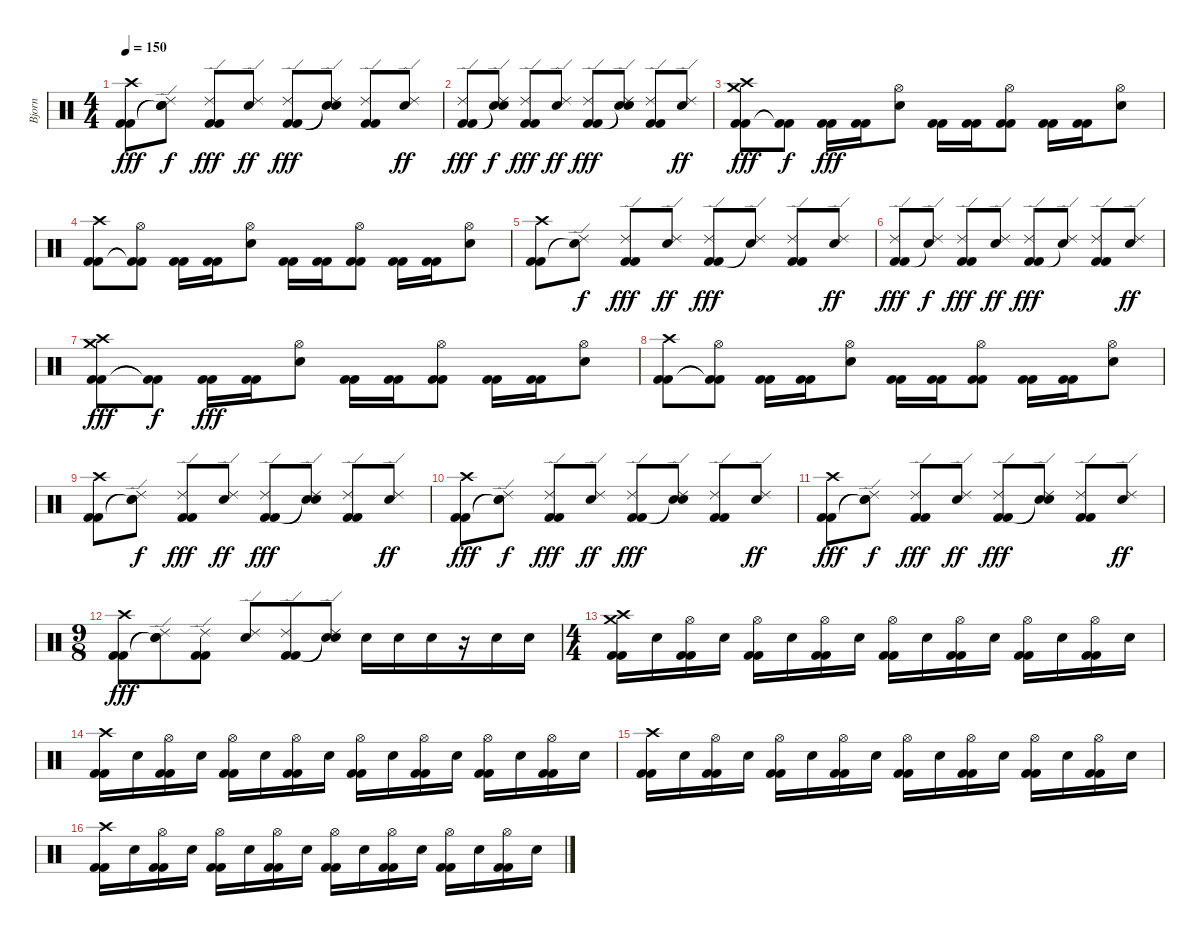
\track ("Bjorn" "Bjorn") {instrument percussion}
\staff {score}
\articulation defaults
\ts (4 4)
\tempo 150
\clef neutral
\ks c
("Kick (hit) 2" "Kick (hit) 2" "Crash high (hit)").8{dy fff} ("Snare (hit)"{t} "Snare (hit)"{t} "Ride (edge) 2").8{dy f} ("Kick (hit) 2" "Kick (hit) 2" "Ride (edge) 2").8{dy fff} ("Snare (hit) 2" "Ride (edge) 2").8{dy ff} ("Kick (hit) 2" "Kick (hit) 2" "Ride (edge) 2").8{dy fff} ("Snare (hit)"{t} "Snare (hit)"{t} "Ride (edge) 2").8 ("Kick (hit) 2" "Kick (hit) 2" "Ride (edge) 2").8 ("Snare (hit) 2" "Ride (edge) 2").8{dy ff} |
("Kick (hit) 2" "Kick (hit) 2" "Ride (edge) 2").8{dy fff} ("Snare (hit)"{t} "Snare (hit)"{t} "Ride (edge) 2").8{dy f} ("Kick (hit) 2" "Kick (hit) 2" "Ride (edge) 2").8{dy fff} ("Snare (hit) 2" "Ride (edge) 2").8{dy ff} ("Kick (hit) 2" "Kick (hit) 2" "Ride (edge) 2").8{dy fff} ("Snare (hit)"{t} "Snare (hit)"{t} "Ride (edge) 2").8 ("Kick (hit) 2" "Kick (hit) 2" "Ride (edge) 2").8 ("Snare (hit) 2" "Ride (edge) 2").8{dy ff} |
("Kick (hit) 2" "Kick (hit) 2" "Crash high (hit)" "Crash medium (hit)").8{dy fff} ("Kick (hit) 2"{t} "Kick (hit) 2"{t}).8{dy f} ("Kick (hit) 2" "Kick (hit) 2").16{dy fff} ("Kick (hit) 2" "Kick (hit) 2").16 ("Snare (hit) 2" "Hi-Hat (open)").8 ("Kick (hit) 2" "Kick (hit) 2").16 ("Kick (hit) 2" "Kick (hit) 2").16 ("Kick (hit) 2" "Kick (hit) 2" "Hi-Hat (open)").8 ("Kick (hit) 2" "Kick (hit) 2").16 ("Kick (hit) 2" "Kick (hit) 2").16 ("Snare (hit) 2" "Hi-Hat (open)").8 |
("Kick (hit) 2" "Kick (hit) 2" "Crash high (hit)").8 ("Kick (hit) 2"{t} "Kick (hit) 2"{t} "Hi-Hat (open)").8 ("Kick (hit) 2" "Kick (hit) 2").16 ("Kick (hit) 2" "Kick (hit) 2").16 ("Snare (hit) 2" "Hi-Hat (open)").8 ("Kick (hit) 2" "Kick (hit) 2").16 ("Kick (hit) 2" "Kick (hit) 2").16 ("Kick (hit) 2" "Kick (hit) 2" "Hi-Hat (open)").8 ("Kick (hit) 2" "Kick (hit) 2").16 ("Kick (hit) 2" "Kick (hit) 2").16 ("Snare (hit) 2" "Hi-Hat (open)").8 |
("Kick (hit) 2" "Kick (hit) 2" "Crash high (hit)").8 ("Snare (hit)"{t} "Ride (edge) 2").8{dy f} ("Kick (hit) 2" "Kick (hit) 2" "Ride (edge) 2").8{dy fff} ("Snare (hit) 2" "Ride (edge) 2").8{dy ff} ("Kick (hit) 2" "Kick (hit) 2" "Ride (edge) 2").8{dy fff} ("Snare (hit)"{t} "Ride (edge) 2").8 ("Kick (hit) 2" "Kick (hit) 2" "Ride (edge) 2").8 ("Snare (hit) 2" "Ride (edge) 2").8{dy ff} |
("Kick (hit) 2" "Kick (hit) 2" "Ride (edge) 2").8{dy fff} ("Snare (hit)"{t} "Ride (edge) 2").8{dy f} ("Kick (hit) 2" "Kick (hit) 2" "Ride (edge) 2").8{dy fff} ("Snare (hit) 2" "Ride (edge) 2").8{dy ff} ("Kick (hit) 2" "Kick (hit) 2" "Ride (edge) 2").8{dy fff} ("Snare (hit)"{t} "Ride (edge) 2").8 ("Kick (hit) 2" "Kick (hit) 2" "Ride (edge) 2").8 ("Snare (hit) 2" "Ride (edge) 2").8{dy ff} |
("Kick (hit) 2" "Kick (hit) 2" "Crash high (hit)" "Crash medium (hit)").8{dy fff} ("Kick (hit) 2"{t} "Kick (hit) 2"{t}).8{dy f} ("Kick (hit) 2" "Kick (hit) 2").16{dy fff} ("Kick (hit) 2" "Kick (hit) 2").16 ("Snare (hit) 2" "Hi-Hat (open)").8 ("Kick (hit) 2" "Kick (hit) 2").16 ("Kick (hit) 2" "Kick (hit) 2").16 ("Kick (hit) 2" "Kick (hit) 2" "Hi-Hat (open)").8 ("Kick (hit) 2" "Kick (hit) 2").16 ("Kick (hit) 2" "Kick (hit) 2").16 ("Snare (hit) 2" "Hi-Hat (open)").8 |
("Kick (hit) 2" "Kick (hit) 2" "Crash high (hit)").8 ("Kick (hit) 2"{t} "Kick (hit) 2"{t} "Hi-Hat (open)").8 ("Kick (hit) 2" "Kick (hit) 2").16 ("Kick (hit) 2" "Kick (hit) 2").16 ("Snare (hit) 2" "Hi-Hat (open)").8 ("Kick (hit) 2" "Kick (hit) 2").16 ("Kick (hit) 2" "Kick (hit) 2").16 ("Kick (hit) 2" "Kick (hit) 2" "Hi-Hat (open)").8 ("Kick (hit) 2" "Kick (hit) 2").16 ("Kick (hit) 2" "Kick (hit) 2").16 ("Snare (hit) 2" "Hi-Hat (open)").8 |
("Kick (hit) 2" "Kick (hit) 2" "Crash high (hit)").8 ("Snare (hit)"{t} "Snare (hit)"{t} "Ride (edge) 2").8{dy f} ("Kick (hit) 2" "Kick (hit) 2" "Ride (edge) 2").8{dy fff} ("Snare (hit) 2" "Ride (edge) 2").8{dy ff} ("Kick (hit) 2" "Kick (hit) 2" "Ride (edge) 2").8{dy fff} ("Snare (hit)"{t} "Snare (hit)"{t} "Ride (edge) 2").8 ("Kick (hit) 2" "Kick (hit) 2" "Ride (edge) 2").8 ("Snare (hit) 2" "Ride (edge) 2").8{dy ff} |
("Kick (hit) 2" "Kick (hit) 2" "Crash high (hit)").8{dy fff} ("Snare (hit)"{t} "Snare (hit)"{t} "Ride (edge) 2").8{dy f} ("Kick (hit) 2" "Kick (hit) 2" "Ride (edge) 2").8{dy fff} ("Snare (hit) 2" "Ride (edge) 2").8{dy ff} ("Kick (hit) 2" "Kick (hit) 2" "Ride (edge) 2").8{dy fff} ("Snare (hit)"{t} "Snare (hit)"{t} "Ride (edge) 2").8 ("Kick (hit) 2" "Kick (hit) 2" "Ride (edge) 2").8 ("Snare (hit) 2" "Ride (edge) 2").8{dy ff} |
("Kick (hit) 2" "Kick (hit) 2" "Crash high (hit)").8{dy fff} ("Snare (hit)"{t} "Snare (hit)"{t} "Ride (edge) 2").8{dy f} ("Kick (hit) 2" "Kick (hit) 2" "Ride (edge) 2").8{dy fff} ("Snare (hit) 2" "Ride (edge) 2").8{dy ff} ("Kick (hit) 2" "Kick (hit) 2" "Ride (edge) 2").8{dy fff} ("Snare (hit)"{t} "Snare (hit)"{t} "Ride (edge) 2").8 ("Kick (hit) 2" "Kick (hit) 2" "Ride (edge) 2").8 ("Snare (hit) 2" "Ride (edge) 2").8{dy ff} |
\ts (9 8)
("Kick (hit) 2" "Kick (hit) 2" "Crash high (hit)").8{dy fff} ("Snare (hit)"{t} "Snare (hit)"{t} "Ride (edge) 2").8 ("Kick (hit) 2" "Kick (hit) 2" "Ride (edge) 2").8 ("Snare (hit) 2" "Ride (edge) 2").8 ("Kick (hit) 2" "Kick (hit) 2" "Ride (edge) 2").8 ("Snare (hit)"{t} "Snare (hit)"{t} "Ride (edge) 2").8 "Snare (hit) 2".16 "Snare (hit) 2".16 "Snare (hit) 2".16 r.16 "Snare (hit) 2".16 "Snare (hit) 2".16 |
\ts (4 4)
("Kick (hit) 2" "Kick (hit) 2" "Crash high (hit)" "Crash medium (hit)").16 "Snare (hit) 2".16 ("Kick (hit) 2" "Kick (hit) 2" "Hi-Hat (open)").16 "Snare (hit) 2".16 ("Kick (hit) 2" "Kick (hit) 2" "Hi-Hat (open)").16 "Snare (hit) 2".16 ("Kick (hit) 2" "Kick (hit) 2" "Hi-Hat (open)").16 "Snare (hit) 2".16 ("Kick (hit) 2" "Kick (hit) 2" "Hi-Hat (open)").16 "Snare (hit) 2".16 ("Kick (hit) 2" "Kick (hit) 2" "Hi-Hat (open)").16 "Snare (hit) 2".16 ("Kick (hit) 2" "Kick (hit) 2" "Hi-Hat (open)").16 "Snare (hit) 2".16 ("Kick (hit) 2" "Kick (hit) 2" "Hi-Hat (open)").16 "Snare (hit) 2".16 |
("Kick (hit) 2" "Kick (hit) 2" "Crash high (hit)").16 "Snare (hit) 2".16 ("Kick (hit) 2" "Kick (hit) 2" "Hi-Hat (open)").16 "Snare (hit) 2".16 ("Kick (hit) 2" "Kick (hit) 2" "Hi-Hat (open)").16 "Snare (hit) 2".16 ("Kick (hit) 2" "Kick (hit) 2" "Hi-Hat (open)").16 "Snare (hit) 2".16 ("Kick (hit) 2" "Kick (hit) 2" "Hi-Hat (open)").16 "Snare (hit) 2".16 ("Kick (hit) 2" "Kick (hit) 2" "Hi-Hat (open)").16 "Snare (hit) 2".16 ("Kick (hit) 2" "Kick (hit) 2" "Hi-Hat (open)").16 "Snare (hit) 2".16 ("Kick (hit) 2" "Kick (hit) 2" "Hi-Hat (open)").16 "Snare (hit) 2".16 |
("Kick (hit) 2" "Kick (hit) 2" "Crash high (hit)").16 "Snare (hit) 2".16 ("Kick (hit) 2" "Kick (hit) 2" "Hi-Hat (open)").16 "Snare (hit) 2".16 ("Kick (hit) 2" "Kick (hit) 2" "Hi-Hat (open)").16 "Snare (hit) 2".16 ("Kick (hit) 2" "Kick (hit) 2" "Hi-Hat (open)").16 "Snare (hit) 2".16 ("Kick (hit) 2" "Kick (hit) 2" "Hi-Hat (open)").16 "Snare (hit) 2".16 ("Kick (hit) 2" "Kick (hit) 2" "Hi-Hat (open)").16 "Snare (hit) 2".16 ("Kick (hit) 2" "Kick (hit) 2" "Hi-Hat (open)").16 "Snare (hit) 2".16 ("Kick (hit) 2" "Kick (hit) 2" "Hi-Hat (open)").16 "Snare (hit) 2".16 |
("Kick (hit) 2" "Kick (hit) 2" "Crash high (hit)").16 "Snare (hit) 2".16 ("Kick (hit) 2" "Kick (hit) 2" "Hi-Hat (open)").16 "Snare (hit) 2".16 ("Kick (hit) 2" "Kick (hit) 2" "Hi-Hat (open)").16 "Snare (hit) 2".16 ("Kick (hit) 2" "Kick (hit) 2" "Hi-Hat (open)").16 "Snare (hit) 2".16 ("Kick (hit) 2" "Kick (hit) 2" "Hi-Hat (open)").16 "Snare (hit) 2".16 ("Kick (hit) 2" "Kick (hit) 2" "Hi-Hat (open)").16 "Snare (hit) 2".16 ("Kick (hit) 2" "Kick (hit) 2" "Hi-Hat (open)").16 "Snare (hit) 2".16 ("Kick (hit) 2" "Kick (hit) 2" "Hi-Hat (open)").16 "Snare (hit) 2".16
